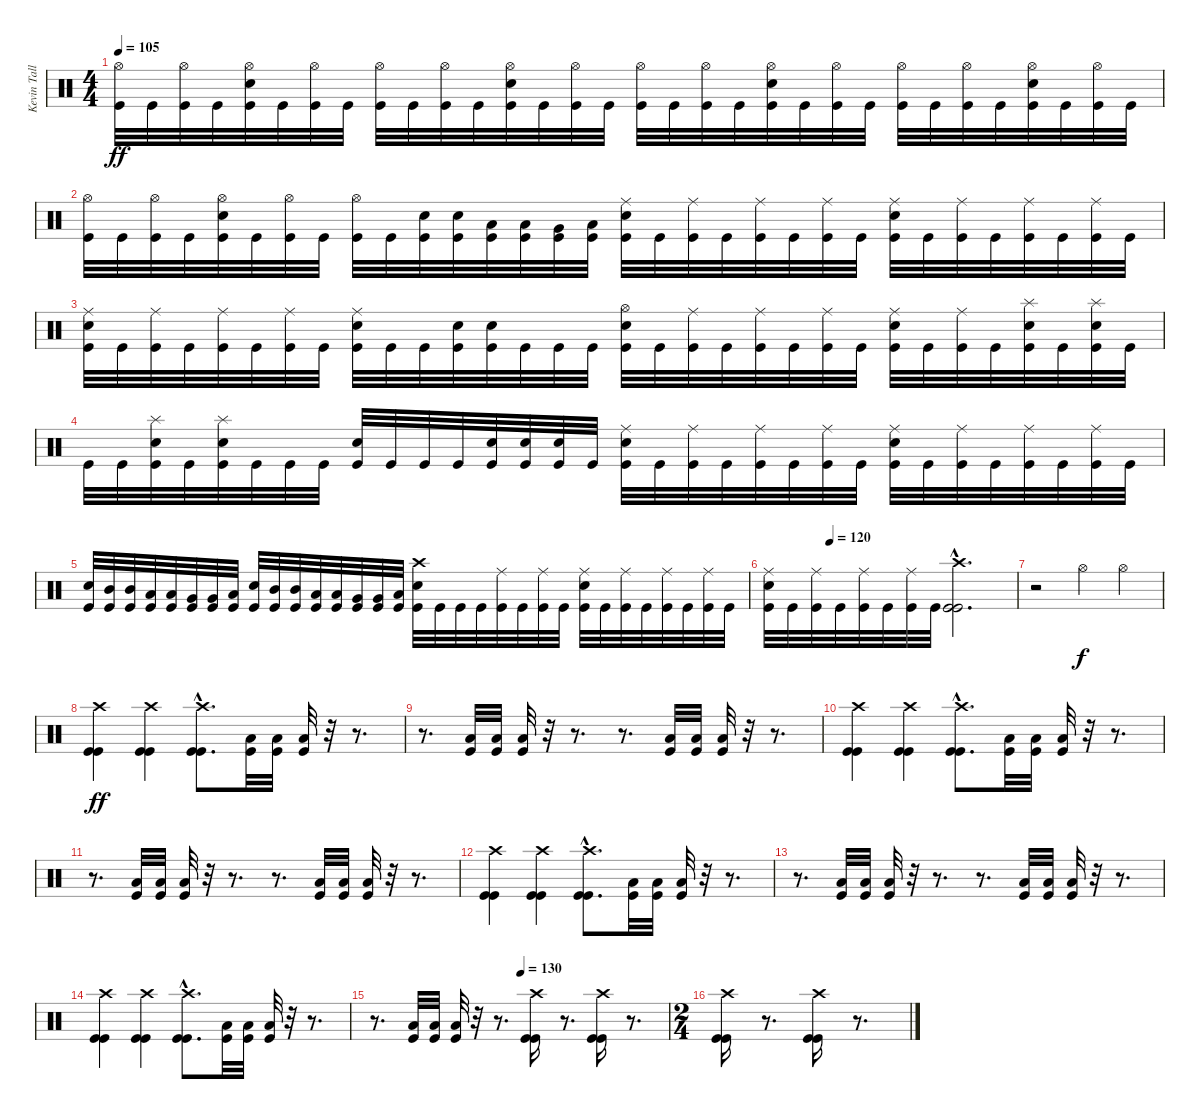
\track ("Kevin Talley" "Kevin Tall") {instrument percussion}
\staff {score}
\articulation defaults
\ts (4 4)
\tempo 105
\clef neutral
\ks c
("Hi-Hat (open)" "Kick (hit)").32{dy ff} "Kick (hit)".32 ("Hi-Hat (open)" "Kick (hit)").32 "Kick (hit)".32 ("Hi-Hat (open)" "Electric Snare (hit)" "Kick (hit)").32 "Kick (hit)".32 ("Hi-Hat (open)" "Kick (hit)").32 "Kick (hit)".32 ("Hi-Hat (open)" "Kick (hit)").32 "Kick (hit)".32 ("Hi-Hat (open)" "Kick (hit)").32 "Kick (hit)".32 ("Hi-Hat (open)" "Electric Snare (hit)" "Kick (hit)").32 "Kick (hit)".32 ("Hi-Hat (open)" "Kick (hit)").32 "Kick (hit)".32 ("Hi-Hat (open)" "Kick (hit)").32 "Kick (hit)".32 ("Hi-Hat (open)" "Kick (hit)").32 "Kick (hit)".32 ("Hi-Hat (open)" "Electric Snare (hit)" "Kick (hit)").32 "Kick (hit)".32 ("Hi-Hat (open)" "Kick (hit)").32 "Kick (hit)".32 ("Hi-Hat (open)" "Kick (hit)").32 "Kick (hit)".32 ("Hi-Hat (open)" "Kick (hit)").32 "Kick (hit)".32 ("Hi-Hat (open)" "Electric Snare (hit)" "Kick (hit)").32 "Kick (hit)".32 ("Hi-Hat (open)" "Kick (hit)").32 "Kick (hit)".32 |
("Hi-Hat (open)" "Kick (hit)").32 "Kick (hit)".32 ("Hi-Hat (open)" "Kick (hit)").32 "Kick (hit)".32 ("Hi-Hat (open)" "Electric Snare (hit)" "Kick (hit)").32 "Kick (hit)".32 ("Hi-Hat (open)" "Kick (hit)").32 "Kick (hit)".32 ("Hi-Hat (open)" "Kick (hit)").32 "Kick (hit)".32 ("Electric Snare (hit)" "Kick (hit)").32 ("Electric Snare (hit)" "Kick (hit)").32 ("Low Tom (hit)" "Kick (hit)").32 ("Low Tom (hit)" "Kick (hit)").32 ("Very Low Tom (hit)" "Kick (hit)").32 ("Low Floor Tom (hit)" "Kick (hit)").32 ("Ride (middle)" "Electric Snare (hit)" "Kick (hit)").32 "Kick (hit)".32 ("Ride (middle)" "Kick (hit)").32 "Kick (hit)".32 ("Ride (middle)" "Kick (hit)").32 "Kick (hit)".32 ("Ride (middle)" "Kick (hit)").32 "Kick (hit)".32 ("Ride (middle)" "Electric Snare (hit)" "Kick (hit)").32 "Kick (hit)".32 ("Ride (middle)" "Kick (hit)").32 "Kick (hit)".32 ("Ride (middle)" "Kick (hit)").32 "Kick (hit)".32 ("Ride (middle)" "Kick (hit)").32 "Kick (hit)".32 |
("Ride (middle)" "Electric Snare (hit)" "Kick (hit)").32 "Kick (hit)".32 ("Ride (middle)" "Kick (hit)").32 "Kick (hit)".32 ("Ride (middle)" "Kick (hit)").32 "Kick (hit)".32 ("Ride (middle)" "Kick (hit)").32 "Kick (hit)".32 ("Ride (middle)" "Electric Snare (hit)" "Kick (hit)").32 "Kick (hit)".32 "Kick (hit)".32 ("Electric Snare (hit)" "Kick (hit)").32 ("Electric Snare (hit)" "Kick (hit)").32 "Kick (hit)".32 "Kick (hit)".32 "Kick (hit)".32 ("Hi-Hat (open)" "Electric Snare (hit)" "Kick (hit)").32 "Kick (hit)".32 ("Ride (middle)" "Kick (hit)").32 "Kick (hit)".32 ("Ride (middle)" "Kick (hit)").32 "Kick (hit)".32 ("Ride (middle)" "Kick (hit)").32 "Kick (hit)".32 ("Ride (middle)" "Electric Snare (hit)" "Kick (hit)").32 "Kick (hit)".32 ("Ride (middle)" "Kick (hit)").32 "Kick (hit)".32 ("Splash (hit)" "Electric Snare (hit)" "Kick (hit)").32 "Kick (hit)".32 ("Splash (hit)" "Electric Snare (hit)" "Kick (hit)").32 "Kick (hit)".32 |
"Kick (hit)".32 "Kick (hit)".32 ("Splash (hit)" "Electric Snare (hit)" "Kick (hit)").32 "Kick (hit)".32 ("Splash (hit)" "Electric Snare (hit)" "Kick (hit)").32 "Kick (hit)".32 "Kick (hit)".32 "Kick (hit)".32 ("Electric Snare (hit)" "Kick (hit)").32 "Kick (hit)".32 "Kick (hit)".32 "Kick (hit)".32 ("Electric Snare (hit)" "Kick (hit)").32 ("Electric Snare (hit)" "Kick (hit)").32 ("Electric Snare (hit)" "Kick (hit)").32 "Kick (hit)".32 ("Ride (middle)" "Electric Snare (hit)" "Kick (hit)").32 "Kick (hit)".32 ("Ride (middle)" "Kick (hit)").32 "Kick (hit)".32 ("Ride (middle)" "Kick (hit)").32 "Kick (hit)".32 ("Ride (middle)" "Kick (hit)").32 "Kick (hit)".32 ("Ride (middle)" "Electric Snare (hit)" "Kick (hit)").32 "Kick (hit)".32 ("Ride (middle)" "Kick (hit)").32 "Kick (hit)".32 ("Ride (middle)" "Kick (hit)").32 "Kick (hit)".32 ("Ride (middle)" "Kick (hit)").32 "Kick (hit)".32 |
("Electric Snare (hit)" "Kick (hit)").32 ("Mid Tom (hit)" "Kick (hit)").32 ("Mid Tom (hit)" "Kick (hit)").32 ("Low Tom (hit)" "Kick (hit)").32 ("Low Tom (hit)" "Kick (hit)").32 ("Very Low Tom (hit)" "Kick (hit)").32 ("Very Low Tom (hit)" "Kick (hit)").32 ("Low Floor Tom (hit)" "Kick (hit)").32 ("Electric Snare (hit)" "Kick (hit)").32 ("Mid Tom (hit)" "Kick (hit)").32 ("Mid Tom (hit)" "Kick (hit)").32 ("Low Tom (hit)" "Kick (hit)").32 ("Low Tom (hit)" "Kick (hit)").32 ("Very Low Tom (hit)" "Kick (hit)").32 ("Very Low Tom (hit)" "Kick (hit)").32 ("Low Floor Tom (hit)" "Kick (hit)").32 ("Crash high (hit)" "Electric Snare (hit)" "Kick (hit)").32 "Kick (hit)".32 "Kick (hit)".32 "Kick (hit)".32 ("Ride (middle)" "Kick (hit)").32 "Kick (hit)".32 ("Ride (middle)" "Kick (hit)").32 "Kick (hit)".32 ("Ride (middle)" "Electric Snare (hit)" "Kick (hit)").32 "Kick (hit)".32 ("Ride (middle)" "Kick (hit)").32 "Kick (hit)".32 ("Ride (middle)" "Kick (hit)").32 "Kick (hit)".32 ("Ride (middle)" "Kick (hit)").32 "Kick (hit)".32 |
\tempo (120 0.25)
("Ride (middle)" "Electric Snare (hit)" "Kick (hit)").32 "Kick (hit)".32 ("Ride (middle)" "Kick (hit)").32 "Kick (hit)".32 ("Ride (middle)" "Kick (hit)").32 "Kick (hit)".32 ("Ride (middle)" "Kick (hit)").32 "Kick (hit)".32 ("Crash high (hit)"{hac} "Kick (hit)"{hac} "Kick (hit)"{hac}).2{d} |
r.2 "Hi-Hat (open)".4{dy f} "Hi-Hat (open)".4 |
("Crash high (hit)" "Kick (hit)" "Kick (hit)").4{dy ff} ("Crash high (hit)" "Kick (hit)" "Kick (hit)").4 ("Crash high (hit)"{hac} "Kick (hit)"{hac} "Kick (hit)"{hac}).8{d} ("Low Floor Tom (hit)" "Kick (hit)").32 ("Low Floor Tom (hit)" "Kick (hit)").32 ("Low Floor Tom (hit)" "Kick (hit)").32 r.32 r.8{d} |
r.8{d} ("Low Floor Tom (hit)" "Kick (hit)").32 ("Low Floor Tom (hit)" "Kick (hit)").32 ("Low Floor Tom (hit)" "Kick (hit)").32 r.32 r.8{d} r.8{d} ("Low Floor Tom (hit)" "Kick (hit)").32 ("Low Floor Tom (hit)" "Kick (hit)").32 ("Low Floor Tom (hit)" "Kick (hit)").32 r.32 r.8{d} |
("Crash high (hit)" "Kick (hit)" "Kick (hit)").4 ("Crash high (hit)" "Kick (hit)" "Kick (hit)").4 ("Crash high (hit)"{hac} "Kick (hit)"{hac} "Kick (hit)"{hac}).8{d} ("Low Floor Tom (hit)" "Kick (hit)").32 ("Low Floor Tom (hit)" "Kick (hit)").32 ("Low Floor Tom (hit)" "Kick (hit)").32 r.32 r.8{d} |
r.8{d} ("Low Floor Tom (hit)" "Kick (hit)").32 ("Low Floor Tom (hit)" "Kick (hit)").32 ("Low Floor Tom (hit)" "Kick (hit)").32 r.32 r.8{d} r.8{d} ("Low Floor Tom (hit)" "Kick (hit)").32 ("Low Floor Tom (hit)" "Kick (hit)").32 ("Low Floor Tom (hit)" "Kick (hit)").32 r.32 r.8{d} |
("Crash high (hit)" "Kick (hit)" "Kick (hit)").4 ("Crash high (hit)" "Kick (hit)" "Kick (hit)").4 ("Crash high (hit)"{hac} "Kick (hit)"{hac} "Kick (hit)"{hac}).8{d} ("Low Floor Tom (hit)" "Kick (hit)").32 ("Low Floor Tom (hit)" "Kick (hit)").32 ("Low Floor Tom (hit)" "Kick (hit)").32 r.32 r.8{d} |
r.8{d} ("Low Floor Tom (hit)" "Kick (hit)").32 ("Low Floor Tom (hit)" "Kick (hit)").32 ("Low Floor Tom (hit)" "Kick (hit)").32 r.32 r.8{d} r.8{d} ("Low Floor Tom (hit)" "Kick (hit)").32 ("Low Floor Tom (hit)" "Kick (hit)").32 ("Low Floor Tom (hit)" "Kick (hit)").32 r.32 r.8{d} |
("Crash high (hit)" "Kick (hit)" "Kick (hit)").4 ("Crash high (hit)" "Kick (hit)" "Kick (hit)").4 ("Crash high (hit)"{hac} "Kick (hit)"{hac} "Kick (hit)"{hac}).8{d} ("Low Floor Tom (hit)" "Kick (hit)").32 ("Low Floor Tom (hit)" "Kick (hit)").32 ("Low Floor Tom (hit)" "Kick (hit)").32 r.32 r.8{d} |
\tempo (130 0.5)
r.8{d} ("Low Floor Tom (hit)" "Kick (hit)").32 ("Low Floor Tom (hit)" "Kick (hit)").32 ("Low Floor Tom (hit)" "Kick (hit)").32 r.32 r.8{d} ("Crash high (hit)" "Kick (hit)" "Kick (hit)").16 r.8{d volume 0} ("Crash high (hit)" "Kick (hit)" "Kick (hit)").16{volume 16} r.8{d volume 0} |
\ts (2 4)
("Crash high (hit)" "Kick (hit)" "Kick (hit)").16{volume 16} r.8{d volume 0} ("Crash high (hit)" "Kick (hit)" "Kick (hit)").16{volume 16} r.8{d volume 0}
